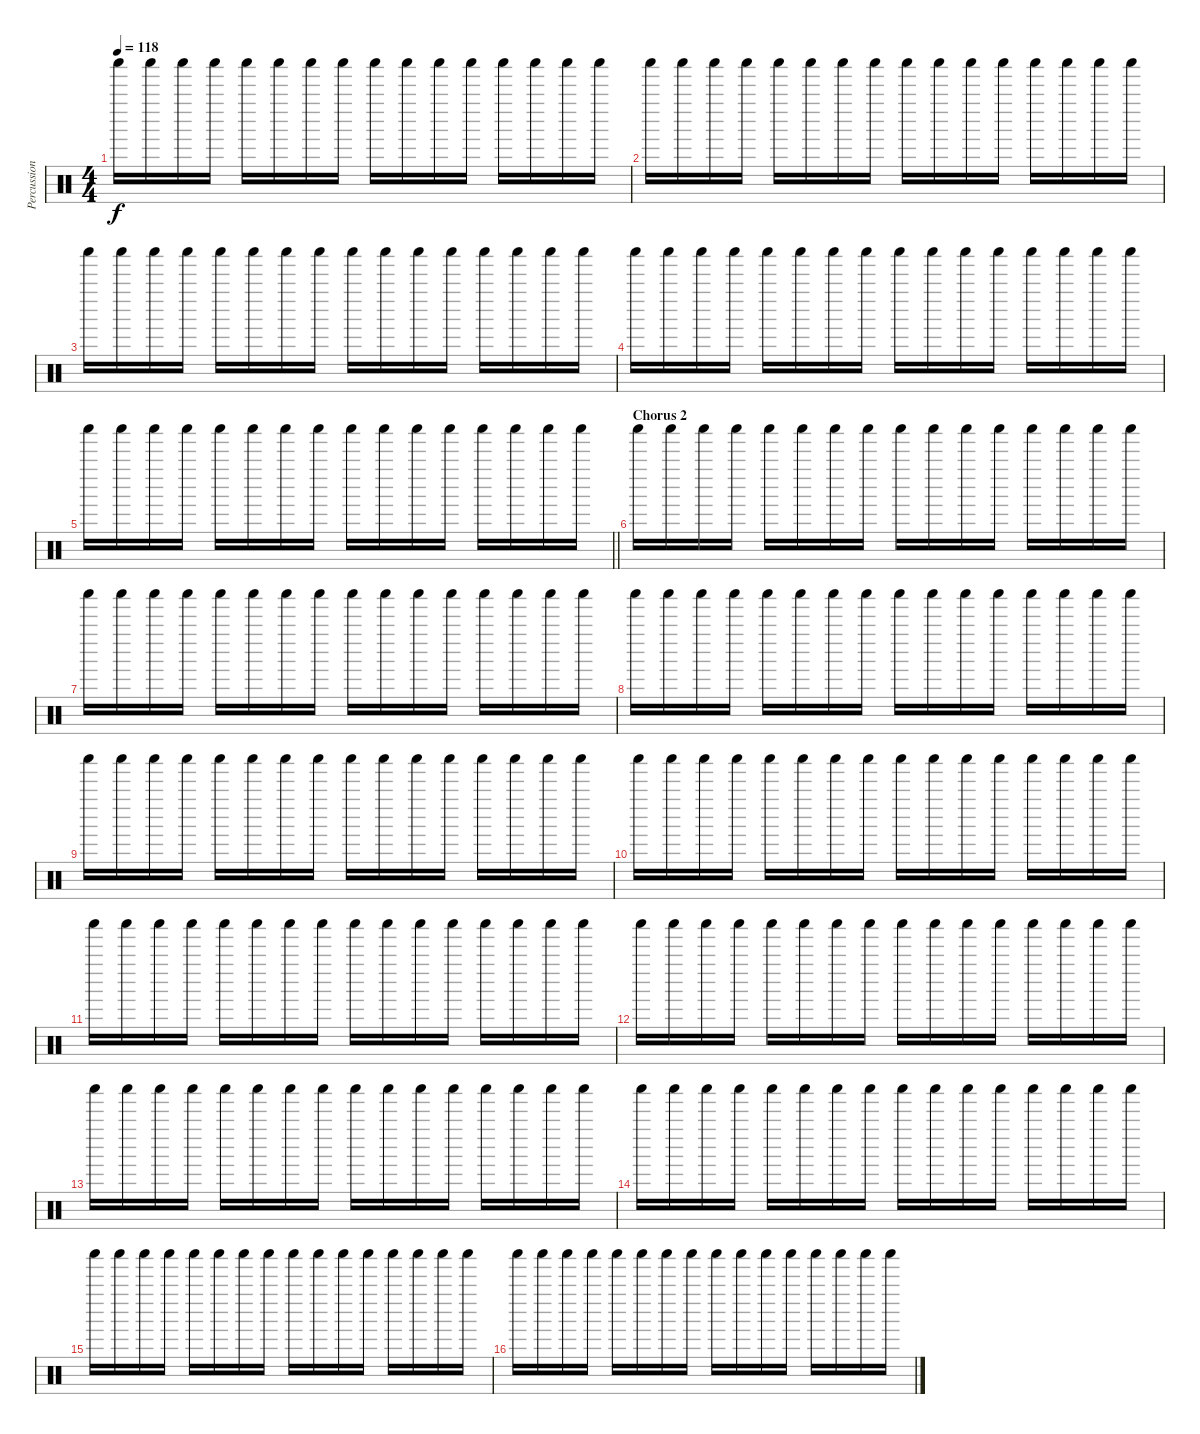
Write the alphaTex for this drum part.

\track ("Percussion" "Percussion") {instrument percussion}
\staff {score}
\articulation defaults
\ts (4 4)
\tempo 118
\clef neutral
\ks c "Shaker (hit)".16{dy f} "Shaker (hit)".16 "Shaker (hit)".16 "Shaker (hit)".16 "Shaker (hit)".16 "Shaker (hit)".16 "Shaker (hit)".16 "Shaker (hit)".16 "Shaker (hit)".16 "Shaker (hit)".16 "Shaker (hit)".16 "Shaker (hit)".16 "Shaker (hit)".16 "Shaker (hit)".16 "Shaker (hit)".16 "Shaker (hit)".16
|
"Shaker (hit)".16 "Shaker (hit)".16 "Shaker (hit)".16 "Shaker (hit)".16 "Shaker (hit)".16 "Shaker (hit)".16 "Shaker (hit)".16 "Shaker (hit)".16 "Shaker (hit)".16 "Shaker (hit)".16 "Shaker (hit)".16 "Shaker (hit)".16 "Shaker (hit)".16 "Shaker (hit)".16 "Shaker (hit)".16 "Shaker (hit)".16 |
"Shaker (hit)".16 "Shaker (hit)".16 "Shaker (hit)".16 "Shaker (hit)".16 "Shaker (hit)".16 "Shaker (hit)".16 "Shaker (hit)".16 "Shaker (hit)".16 "Shaker (hit)".16 "Shaker (hit)".16 "Shaker (hit)".16 "Shaker (hit)".16 "Shaker (hit)".16 "Shaker (hit)".16 "Shaker (hit)".16 "Shaker (hit)".16 |
"Shaker (hit)".16 "Shaker (hit)".16 "Shaker (hit)".16 "Shaker (hit)".16 "Shaker (hit)".16 "Shaker (hit)".16 "Shaker (hit)".16 "Shaker (hit)".16 "Shaker (hit)".16 "Shaker (hit)".16 "Shaker (hit)".16 "Shaker (hit)".16 "Shaker (hit)".16 "Shaker (hit)".16 "Shaker (hit)".16 "Shaker (hit)".16 |
\barLineRight lightlight "Shaker (hit)".16 "Shaker (hit)".16 "Shaker (hit)".16 "Shaker (hit)".16 "Shaker (hit)".16 "Shaker (hit)".16 "Shaker (hit)".16 "Shaker (hit)".16 "Shaker (hit)".16 "Shaker (hit)".16 "Shaker (hit)".16 "Shaker (hit)".16 "Shaker (hit)".16 "Shaker (hit)".16 "Shaker (hit)".16 "Shaker (hit)".16
|
\section ("" "Chorus 2")
"Shaker (hit)".16 "Shaker (hit)".16 "Shaker (hit)".16 "Shaker (hit)".16 "Shaker (hit)".16 "Shaker (hit)".16 "Shaker (hit)".16 "Shaker (hit)".16 "Shaker (hit)".16 "Shaker (hit)".16 "Shaker (hit)".16 "Shaker (hit)".16 "Shaker (hit)".16 "Shaker (hit)".16 "Shaker (hit)".16 "Shaker (hit)".16 |
"Shaker (hit)".16 "Shaker (hit)".16 "Shaker (hit)".16 "Shaker (hit)".16 "Shaker (hit)".16 "Shaker (hit)".16 "Shaker (hit)".16 "Shaker (hit)".16 "Shaker (hit)".16 "Shaker (hit)".16 "Shaker (hit)".16 "Shaker (hit)".16 "Shaker (hit)".16 "Shaker (hit)".16 "Shaker (hit)".16 "Shaker (hit)".16 |
"Shaker (hit)".16 "Shaker (hit)".16 "Shaker (hit)".16 "Shaker (hit)".16 "Shaker (hit)".16 "Shaker (hit)".16 "Shaker (hit)".16 "Shaker (hit)".16 "Shaker (hit)".16 "Shaker (hit)".16 "Shaker (hit)".16 "Shaker (hit)".16 "Shaker (hit)".16 "Shaker (hit)".16 "Shaker (hit)".16 "Shaker (hit)".16 |
"Shaker (hit)".16 "Shaker (hit)".16 "Shaker (hit)".16 "Shaker (hit)".16 "Shaker (hit)".16 "Shaker (hit)".16 "Shaker (hit)".16 "Shaker (hit)".16 "Shaker (hit)".16 "Shaker (hit)".16 "Shaker (hit)".16 "Shaker (hit)".16 "Shaker (hit)".16 "Shaker (hit)".16 "Shaker (hit)".16 "Shaker (hit)".16 |
"Shaker (hit)".16 "Shaker (hit)".16 "Shaker (hit)".16 "Shaker (hit)".16 "Shaker (hit)".16 "Shaker (hit)".16 "Shaker (hit)".16 "Shaker (hit)".16 "Shaker (hit)".16 "Shaker (hit)".16 "Shaker (hit)".16 "Shaker (hit)".16 "Shaker (hit)".16 "Shaker (hit)".16 "Shaker (hit)".16 "Shaker (hit)".16 |
"Shaker (hit)".16 "Shaker (hit)".16 "Shaker (hit)".16 "Shaker (hit)".16 "Shaker (hit)".16 "Shaker (hit)".16 "Shaker (hit)".16 "Shaker (hit)".16 "Shaker (hit)".16 "Shaker (hit)".16 "Shaker (hit)".16 "Shaker (hit)".16 "Shaker (hit)".16 "Shaker (hit)".16 "Shaker (hit)".16 "Shaker (hit)".16 |
"Shaker (hit)".16 "Shaker (hit)".16 "Shaker (hit)".16 "Shaker (hit)".16 "Shaker (hit)".16 "Shaker (hit)".16 "Shaker (hit)".16 "Shaker (hit)".16 "Shaker (hit)".16 "Shaker (hit)".16 "Shaker (hit)".16 "Shaker (hit)".16 "Shaker (hit)".16 "Shaker (hit)".16 "Shaker (hit)".16 "Shaker (hit)".16 |
"Shaker (hit)".16 "Shaker (hit)".16 "Shaker (hit)".16 "Shaker (hit)".16 "Shaker (hit)".16 "Shaker (hit)".16 "Shaker (hit)".16 "Shaker (hit)".16 "Shaker (hit)".16 "Shaker (hit)".16 "Shaker (hit)".16 "Shaker (hit)".16 "Shaker (hit)".16 "Shaker (hit)".16 "Shaker (hit)".16 "Shaker (hit)".16 |
"Shaker (hit)".16 "Shaker (hit)".16 "Shaker (hit)".16 "Shaker (hit)".16 "Shaker (hit)".16 "Shaker (hit)".16 "Shaker (hit)".16 "Shaker (hit)".16 "Shaker (hit)".16 "Shaker (hit)".16 "Shaker (hit)".16 "Shaker (hit)".16 "Shaker (hit)".16 "Shaker (hit)".16 "Shaker (hit)".16 "Shaker (hit)".16 |
"Shaker (hit)".16 "Shaker (hit)".16 "Shaker (hit)".16 "Shaker (hit)".16 "Shaker (hit)".16 "Shaker (hit)".16 "Shaker (hit)".16 "Shaker (hit)".16 "Shaker (hit)".16 "Shaker (hit)".16 "Shaker (hit)".16 "Shaker (hit)".16 "Shaker (hit)".16 "Shaker (hit)".16 "Shaker (hit)".16 "Shaker (hit)".16 |
"Shaker (hit)".16 "Shaker (hit)".16 "Shaker (hit)".16 "Shaker (hit)".16 "Shaker (hit)".16 "Shaker (hit)".16 "Shaker (hit)".16 "Shaker (hit)".16 "Shaker (hit)".16 "Shaker (hit)".16 "Shaker (hit)".16 "Shaker (hit)".16 "Shaker (hit)".16 "Shaker (hit)".16 "Shaker (hit)".16 "Shaker (hit)".16
